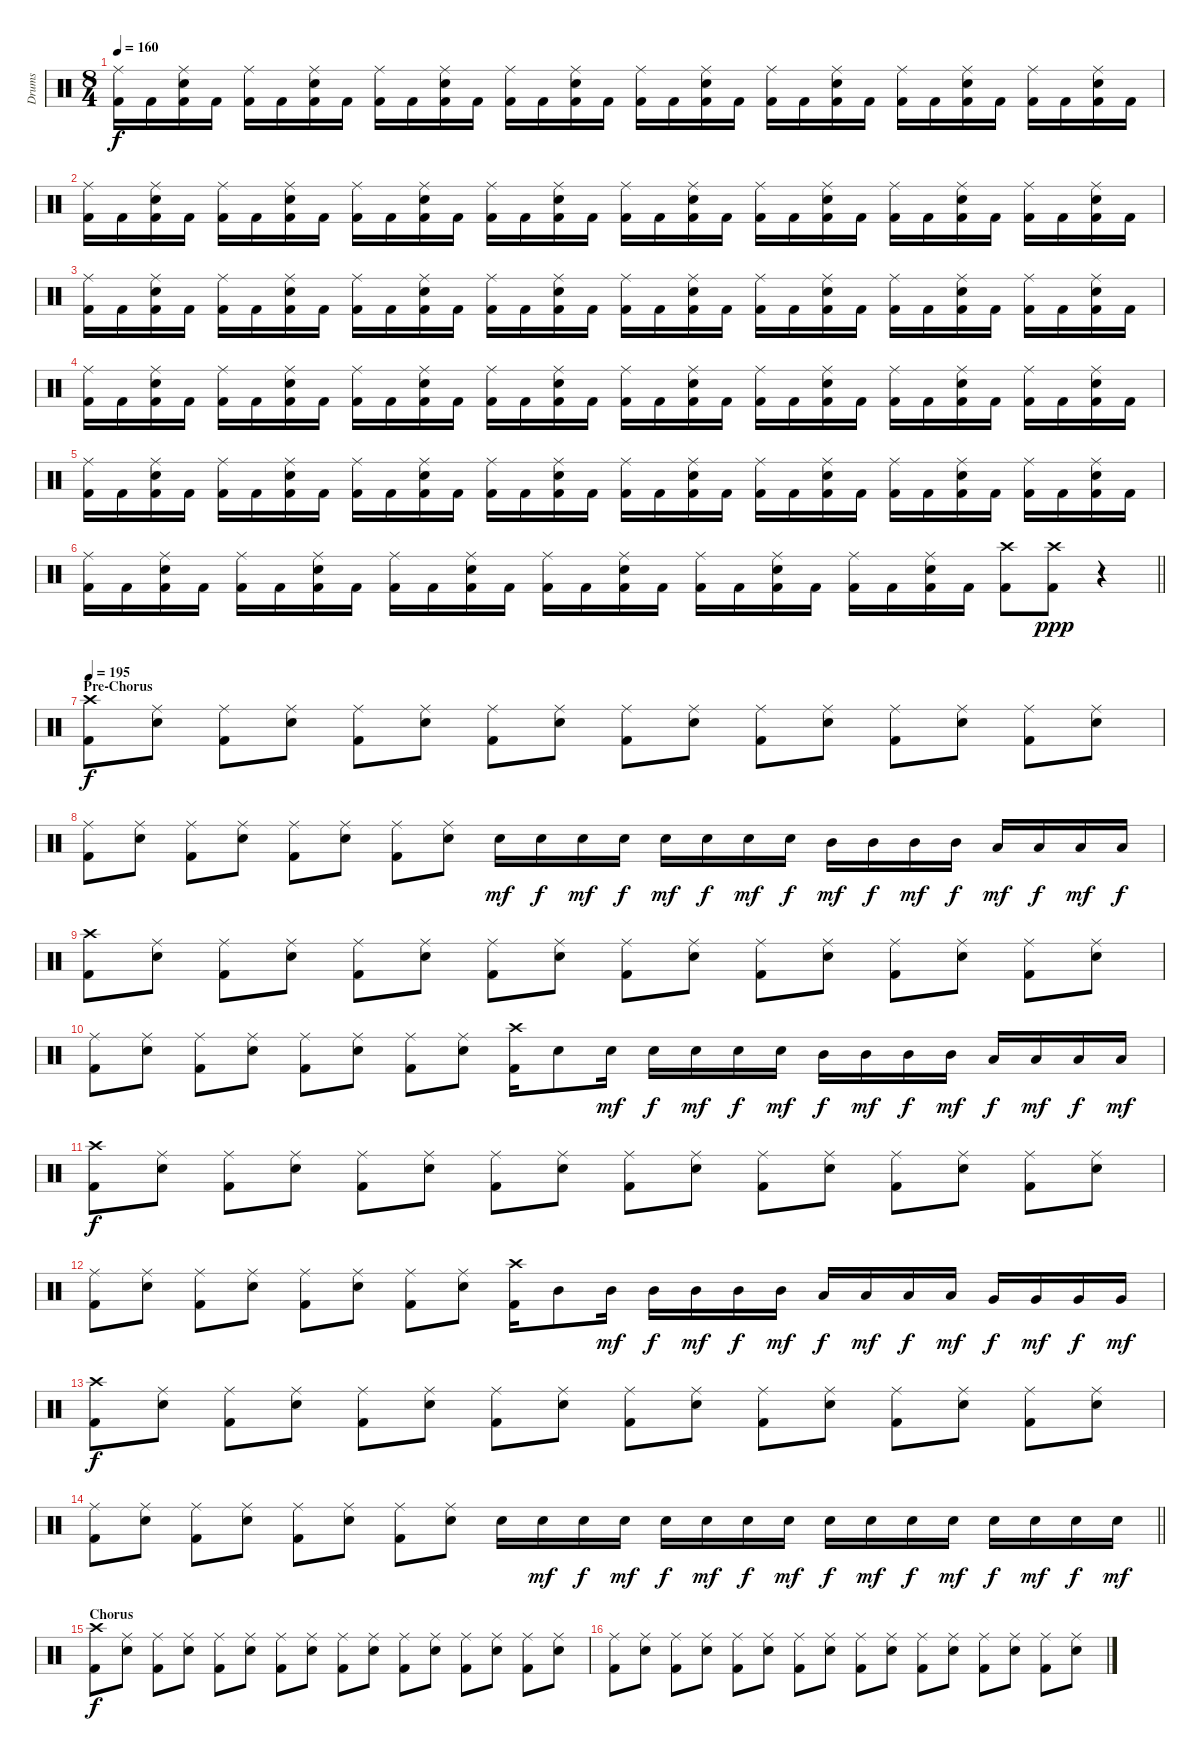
\track ("Drums" "Drums") {instrument percussion}
\staff {score}
\articulation defaults
\ts (8 4)
\tempo 160
\clef neutral
\ks c
("Ride (middle)" "Kick (hit) 2").16{dy f} "Kick (hit) 2".16 ("Ride (middle)" "Snare (hit) 2" "Kick (hit) 2").16 "Kick (hit) 2".16 ("Ride (middle)" "Kick (hit) 2").16 "Kick (hit) 2".16 ("Ride (middle)" "Snare (hit) 2" "Kick (hit) 2").16 "Kick (hit) 2".16 ("Ride (middle)" "Kick (hit) 2").16 "Kick (hit) 2".16 ("Ride (middle)" "Snare (hit) 2" "Kick (hit) 2").16 "Kick (hit) 2".16 ("Ride (middle)" "Kick (hit) 2").16 "Kick (hit) 2".16 ("Ride (middle)" "Snare (hit) 2" "Kick (hit) 2").16 "Kick (hit) 2".16 ("Ride (middle)" "Kick (hit) 2").16 "Kick (hit) 2".16 ("Ride (middle)" "Snare (hit) 2" "Kick (hit) 2").16 "Kick (hit) 2".16 ("Ride (middle)" "Kick (hit) 2").16 "Kick (hit) 2".16 ("Ride (middle)" "Snare (hit) 2" "Kick (hit) 2").16 "Kick (hit) 2".16 ("Ride (middle)" "Kick (hit) 2").16 "Kick (hit) 2".16 ("Ride (middle)" "Snare (hit) 2" "Kick (hit) 2").16 "Kick (hit) 2".16 ("Ride (middle)" "Kick (hit) 2").16 "Kick (hit) 2".16 ("Ride (middle)" "Snare (hit) 2" "Kick (hit) 2").16 "Kick (hit) 2".16 |
("Ride (middle)" "Kick (hit) 2").16 "Kick (hit) 2".16 ("Ride (middle)" "Snare (hit) 2" "Kick (hit) 2").16 "Kick (hit) 2".16 ("Ride (middle)" "Kick (hit) 2").16 "Kick (hit) 2".16 ("Ride (middle)" "Snare (hit) 2" "Kick (hit) 2").16 "Kick (hit) 2".16 ("Ride (middle)" "Kick (hit) 2").16 "Kick (hit) 2".16 ("Ride (middle)" "Snare (hit) 2" "Kick (hit) 2").16 "Kick (hit) 2".16 ("Ride (middle)" "Kick (hit) 2").16 "Kick (hit) 2".16 ("Ride (middle)" "Snare (hit) 2" "Kick (hit) 2").16 "Kick (hit) 2".16 ("Ride (middle)" "Kick (hit) 2").16 "Kick (hit) 2".16 ("Ride (middle)" "Snare (hit) 2" "Kick (hit) 2").16 "Kick (hit) 2".16 ("Ride (middle)" "Kick (hit) 2").16 "Kick (hit) 2".16 ("Ride (middle)" "Snare (hit) 2" "Kick (hit) 2").16 "Kick (hit) 2".16 ("Ride (middle)" "Kick (hit) 2").16 "Kick (hit) 2".16 ("Ride (middle)" "Snare (hit) 2" "Kick (hit) 2").16 "Kick (hit) 2".16 ("Ride (middle)" "Kick (hit) 2").16 "Kick (hit) 2".16 ("Ride (middle)" "Snare (hit) 2" "Kick (hit) 2").16 "Kick (hit) 2".16 |
("Ride (middle)" "Kick (hit) 2").16 "Kick (hit) 2".16 ("Ride (middle)" "Snare (hit) 2" "Kick (hit) 2").16 "Kick (hit) 2".16 ("Ride (middle)" "Kick (hit) 2").16 "Kick (hit) 2".16 ("Ride (middle)" "Snare (hit) 2" "Kick (hit) 2").16 "Kick (hit) 2".16 ("Ride (middle)" "Kick (hit) 2").16 "Kick (hit) 2".16 ("Ride (middle)" "Snare (hit) 2" "Kick (hit) 2").16 "Kick (hit) 2".16 ("Ride (middle)" "Kick (hit) 2").16 "Kick (hit) 2".16 ("Ride (middle)" "Snare (hit) 2" "Kick (hit) 2").16 "Kick (hit) 2".16 ("Ride (middle)" "Kick (hit) 2").16 "Kick (hit) 2".16 ("Ride (middle)" "Snare (hit) 2" "Kick (hit) 2").16 "Kick (hit) 2".16 ("Ride (middle)" "Kick (hit) 2").16 "Kick (hit) 2".16 ("Ride (middle)" "Snare (hit) 2" "Kick (hit) 2").16 "Kick (hit) 2".16 ("Ride (middle)" "Kick (hit) 2").16 "Kick (hit) 2".16 ("Ride (middle)" "Snare (hit) 2" "Kick (hit) 2").16 "Kick (hit) 2".16 ("Ride (middle)" "Kick (hit) 2").16 "Kick (hit) 2".16 ("Ride (middle)" "Snare (hit) 2" "Kick (hit) 2").16 "Kick (hit) 2".16 |
("Ride (middle)" "Kick (hit) 2").16 "Kick (hit) 2".16 ("Ride (middle)" "Snare (hit) 2" "Kick (hit) 2").16 "Kick (hit) 2".16 ("Ride (middle)" "Kick (hit) 2").16 "Kick (hit) 2".16 ("Ride (middle)" "Snare (hit) 2" "Kick (hit) 2").16 "Kick (hit) 2".16 ("Ride (middle)" "Kick (hit) 2").16 "Kick (hit) 2".16 ("Ride (middle)" "Snare (hit) 2" "Kick (hit) 2").16 "Kick (hit) 2".16 ("Ride (middle)" "Kick (hit) 2").16 "Kick (hit) 2".16 ("Ride (middle)" "Snare (hit) 2" "Kick (hit) 2").16 "Kick (hit) 2".16 ("Ride (middle)" "Kick (hit) 2").16 "Kick (hit) 2".16 ("Ride (middle)" "Snare (hit) 2" "Kick (hit) 2").16 "Kick (hit) 2".16 ("Ride (middle)" "Kick (hit) 2").16 "Kick (hit) 2".16 ("Ride (middle)" "Snare (hit) 2" "Kick (hit) 2").16 "Kick (hit) 2".16 ("Ride (middle)" "Kick (hit) 2").16 "Kick (hit) 2".16 ("Ride (middle)" "Snare (hit) 2" "Kick (hit) 2").16 "Kick (hit) 2".16 ("Ride (middle)" "Kick (hit) 2").16 "Kick (hit) 2".16 ("Ride (middle)" "Snare (hit) 2" "Kick (hit) 2").16 "Kick (hit) 2".16 |
("Ride (middle)" "Kick (hit) 2").16 "Kick (hit) 2".16 ("Ride (middle)" "Snare (hit) 2" "Kick (hit) 2").16 "Kick (hit) 2".16 ("Ride (middle)" "Kick (hit) 2").16 "Kick (hit) 2".16 ("Ride (middle)" "Snare (hit) 2" "Kick (hit) 2").16 "Kick (hit) 2".16 ("Ride (middle)" "Kick (hit) 2").16 "Kick (hit) 2".16 ("Ride (middle)" "Snare (hit) 2" "Kick (hit) 2").16 "Kick (hit) 2".16 ("Ride (middle)" "Kick (hit) 2").16 "Kick (hit) 2".16 ("Ride (middle)" "Snare (hit) 2" "Kick (hit) 2").16 "Kick (hit) 2".16 ("Ride (middle)" "Kick (hit) 2").16 "Kick (hit) 2".16 ("Ride (middle)" "Snare (hit) 2" "Kick (hit) 2").16 "Kick (hit) 2".16 ("Ride (middle)" "Kick (hit) 2").16 "Kick (hit) 2".16 ("Ride (middle)" "Snare (hit) 2" "Kick (hit) 2").16 "Kick (hit) 2".16 ("Ride (middle)" "Kick (hit) 2").16 "Kick (hit) 2".16 ("Ride (middle)" "Snare (hit) 2" "Kick (hit) 2").16 "Kick (hit) 2".16 ("Ride (middle)" "Kick (hit) 2").16 "Kick (hit) 2".16 ("Ride (middle)" "Snare (hit) 2" "Kick (hit) 2").16 "Kick (hit) 2".16 |
\barLineRight lightlight
("Ride (middle)" "Kick (hit) 2").16 "Kick (hit) 2".16 ("Ride (middle)" "Snare (hit) 2" "Kick (hit) 2").16 "Kick (hit) 2".16 ("Ride (middle)" "Kick (hit) 2").16 "Kick (hit) 2".16 ("Ride (middle)" "Snare (hit) 2" "Kick (hit) 2").16 "Kick (hit) 2".16 ("Ride (middle)" "Kick (hit) 2").16 "Kick (hit) 2".16 ("Ride (middle)" "Snare (hit) 2" "Kick (hit) 2").16 "Kick (hit) 2".16 ("Ride (middle)" "Kick (hit) 2").16 "Kick (hit) 2".16 ("Ride (middle)" "Snare (hit) 2" "Kick (hit) 2").16 "Kick (hit) 2".16 ("Ride (middle)" "Kick (hit) 2").16 "Kick (hit) 2".16 ("Ride (middle)" "Snare (hit) 2" "Kick (hit) 2").16 "Kick (hit) 2".16 ("Ride (middle)" "Kick (hit) 2").16 "Kick (hit) 2".16 ("Ride (middle)" "Snare (hit) 2" "Kick (hit) 2").16 "Kick (hit) 2".16 ("Crash high (hit)" "Kick (hit) 2").8 ("Crash high (hit)" "Kick (hit) 2").8{dy ppp} r.4 |
\section ("" "Pre-Chorus")
\tempo 195
("Crash high (hit)" "Kick (hit) 2").8{dy f} ("Ride (middle)" "Snare (hit) 2").8 ("Ride (middle)" "Kick (hit) 2").8 ("Ride (middle)" "Snare (hit) 2").8 ("Ride (middle)" "Kick (hit) 2").8 ("Ride (middle)" "Snare (hit) 2").8 ("Ride (middle)" "Kick (hit) 2").8 ("Ride (middle)" "Snare (hit) 2").8 ("Ride (middle)" "Kick (hit) 2").8 ("Ride (middle)" "Snare (hit) 2").8 ("Ride (middle)" "Kick (hit) 2").8 ("Ride (middle)" "Snare (hit) 2").8 ("Ride (middle)" "Kick (hit) 2").8 ("Ride (middle)" "Snare (hit) 2").8 ("Ride (middle)" "Kick (hit) 2").8 ("Ride (middle)" "Snare (hit) 2").8 |
("Ride (middle)" "Kick (hit) 2").8 ("Ride (middle)" "Snare (hit) 2").8 ("Ride (middle)" "Kick (hit) 2").8 ("Ride (middle)" "Snare (hit) 2").8 ("Ride (middle)" "Kick (hit) 2").8 ("Ride (middle)" "Snare (hit) 2").8 ("Ride (middle)" "Kick (hit) 2").8 ("Ride (middle)" "Snare (hit) 2").8 "Snare (hit) 2".16{dy mf} "Snare (hit) 2".16{dy f} "Snare (hit) 2".16{dy mf} "Snare (hit) 2".16{dy f} "Snare (hit) 2".16{dy mf} "Snare (hit) 2".16{dy f} "Snare (hit) 2".16{dy mf} "Snare (hit) 2".16{dy f} "Mid Tom (hit)".16{dy mf} "Mid Tom (hit)".16{dy f} "Mid Tom (hit)".16{dy mf} "Mid Tom (hit)".16{dy f} "Low Tom (hit)".16{dy mf} "Low Tom (hit)".16{dy f} "Low Tom (hit)".16{dy mf} "Low Tom (hit)".16{dy f} |
("Crash high (hit)" "Kick (hit) 2").8 ("Ride (middle)" "Snare (hit) 2").8 ("Ride (middle)" "Kick (hit) 2").8 ("Ride (middle)" "Snare (hit) 2").8 ("Ride (middle)" "Kick (hit) 2").8 ("Ride (middle)" "Snare (hit) 2").8 ("Ride (middle)" "Kick (hit) 2").8 ("Ride (middle)" "Snare (hit) 2").8 ("Ride (middle)" "Kick (hit) 2").8 ("Ride (middle)" "Snare (hit) 2").8 ("Ride (middle)" "Kick (hit) 2").8 ("Ride (middle)" "Snare (hit) 2").8 ("Ride (middle)" "Kick (hit) 2").8 ("Ride (middle)" "Snare (hit) 2").8 ("Ride (middle)" "Kick (hit) 2").8 ("Ride (middle)" "Snare (hit) 2").8 |
("Ride (middle)" "Kick (hit) 2").8 ("Ride (middle)" "Snare (hit) 2").8 ("Ride (middle)" "Kick (hit) 2").8 ("Ride (middle)" "Snare (hit) 2").8 ("Ride (middle)" "Kick (hit) 2").8 ("Ride (middle)" "Snare (hit) 2").8 ("Ride (middle)" "Kick (hit) 2").8 ("Ride (middle)" "Snare (hit) 2").8 ("Crash high (hit)" "Kick (hit) 2").16 "Snare (hit) 2".8 "Snare (hit) 2".16{dy mf} "Snare (hit) 2".16{dy f} "Snare (hit) 2".16{dy mf} "Snare (hit) 2".16{dy f} "Snare (hit) 2".16{dy mf} "Mid Tom (hit)".16{dy f} "Mid Tom (hit)".16{dy mf} "Mid Tom (hit)".16{dy f} "Mid Tom (hit)".16{dy mf} "Low Tom (hit)".16{dy f} "Low Tom (hit)".16{dy mf} "Low Tom (hit)".16{dy f} "Low Tom (hit)".16{dy mf} |
("Crash high (hit)" "Kick (hit) 2").8{dy f} ("Ride (middle)" "Snare (hit) 2").8 ("Ride (middle)" "Kick (hit) 2").8 ("Ride (middle)" "Snare (hit) 2").8 ("Ride (middle)" "Kick (hit) 2").8 ("Ride (middle)" "Snare (hit) 2").8 ("Ride (middle)" "Kick (hit) 2").8 ("Ride (middle)" "Snare (hit) 2").8 ("Ride (middle)" "Kick (hit) 2").8 ("Ride (middle)" "Snare (hit) 2").8 ("Ride (middle)" "Kick (hit) 2").8 ("Ride (middle)" "Snare (hit) 2").8 ("Ride (middle)" "Kick (hit) 2").8 ("Ride (middle)" "Snare (hit) 2").8 ("Ride (middle)" "Kick (hit) 2").8 ("Ride (middle)" "Snare (hit) 2").8 |
("Ride (middle)" "Kick (hit) 2").8 ("Ride (middle)" "Snare (hit) 2").8 ("Ride (middle)" "Kick (hit) 2").8 ("Ride (middle)" "Snare (hit) 2").8 ("Ride (middle)" "Kick (hit) 2").8 ("Ride (middle)" "Snare (hit) 2").8 ("Ride (middle)" "Kick (hit) 2").8 ("Ride (middle)" "Snare (hit) 2").8 ("Crash high (hit)" "Kick (hit) 2").16 "Mid Tom (hit)".8 "Mid Tom (hit)".16{dy mf} "Mid Tom (hit)".16{dy f} "Mid Tom (hit)".16{dy mf} "Mid Tom (hit)".16{dy f} "Mid Tom (hit)".16{dy mf} "Low Tom (hit)".16{dy f} "Low Tom (hit)".16{dy mf} "Low Tom (hit)".16{dy f} "Low Tom (hit)".16{dy mf} "Very Low Tom (hit)".16{dy f} "Very Low Tom (hit)".16{dy mf} "Very Low Tom (hit)".16{dy f} "Very Low Tom (hit)".16{dy mf} |
("Crash high (hit)" "Kick (hit) 2").8{dy f} ("Ride (middle)" "Snare (hit) 2").8 ("Ride (middle)" "Kick (hit) 2").8 ("Ride (middle)" "Snare (hit) 2").8 ("Ride (middle)" "Kick (hit) 2").8 ("Ride (middle)" "Snare (hit) 2").8 ("Ride (middle)" "Kick (hit) 2").8 ("Ride (middle)" "Snare (hit) 2").8 ("Ride (middle)" "Kick (hit) 2").8 ("Ride (middle)" "Snare (hit) 2").8 ("Ride (middle)" "Kick (hit) 2").8 ("Ride (middle)" "Snare (hit) 2").8 ("Ride (middle)" "Kick (hit) 2").8 ("Ride (middle)" "Snare (hit) 2").8 ("Ride (middle)" "Kick (hit) 2").8 ("Ride (middle)" "Snare (hit) 2").8 |
\barLineRight lightlight
("Ride (middle)" "Kick (hit) 2").8 ("Ride (middle)" "Snare (hit) 2").8 ("Ride (middle)" "Kick (hit) 2").8 ("Ride (middle)" "Snare (hit) 2").8 ("Ride (middle)" "Kick (hit) 2").8 ("Ride (middle)" "Snare (hit) 2").8 ("Ride (middle)" "Kick (hit) 2").8 ("Ride (middle)" "Snare (hit) 2").8 "Snare (hit) 2".16 "Snare (hit) 2".16{dy mf} "Snare (hit) 2".16{dy f} "Snare (hit) 2".16{dy mf} "Snare (hit) 2".16{dy f} "Snare (hit) 2".16{dy mf} "Snare (hit) 2".16{dy f} "Snare (hit) 2".16{dy mf} "Snare (hit) 2".16{dy f} "Snare (hit) 2".16{dy mf} "Snare (hit) 2".16{dy f} "Snare (hit) 2".16{dy mf} "Snare (hit) 2".16{dy f} "Snare (hit) 2".16{dy mf} "Snare (hit) 2".16{dy f} "Snare (hit) 2".16{dy mf} |
\section ("" "Chorus")
("Crash high (hit)" "Kick (hit) 2").8{dy f} ("Ride (middle)" "Snare (hit) 2").8 ("Ride (middle)" "Kick (hit) 2").8 ("Ride (middle)" "Snare (hit) 2").8 ("Ride (middle)" "Kick (hit) 2").8 ("Ride (middle)" "Snare (hit) 2").8 ("Ride (middle)" "Kick (hit) 2").8 ("Ride (middle)" "Snare (hit) 2").8 ("Ride (middle)" "Kick (hit) 2").8 ("Ride (middle)" "Snare (hit) 2").8 ("Ride (middle)" "Kick (hit) 2").8 ("Ride (middle)" "Snare (hit) 2").8 ("Ride (middle)" "Kick (hit) 2").8 ("Ride (middle)" "Snare (hit) 2").8 ("Ride (middle)" "Kick (hit) 2").8 ("Ride (middle)" "Snare (hit) 2").8 |
("Ride (middle)" "Kick (hit) 2").8 ("Ride (middle)" "Snare (hit) 2").8 ("Ride (middle)" "Kick (hit) 2").8 ("Ride (middle)" "Snare (hit) 2").8 ("Ride (middle)" "Kick (hit) 2").8 ("Ride (middle)" "Snare (hit) 2").8 ("Ride (middle)" "Kick (hit) 2").8 ("Ride (middle)" "Snare (hit) 2").8 ("Ride (middle)" "Kick (hit) 2").8 ("Ride (middle)" "Snare (hit) 2").8 ("Ride (middle)" "Kick (hit) 2").8 ("Ride (middle)" "Snare (hit) 2").8 ("Ride (middle)" "Kick (hit) 2").8 ("Ride (middle)" "Snare (hit) 2").8 ("Ride (middle)" "Kick (hit) 2").8 ("Ride (middle)" "Snare (hit) 2").8
